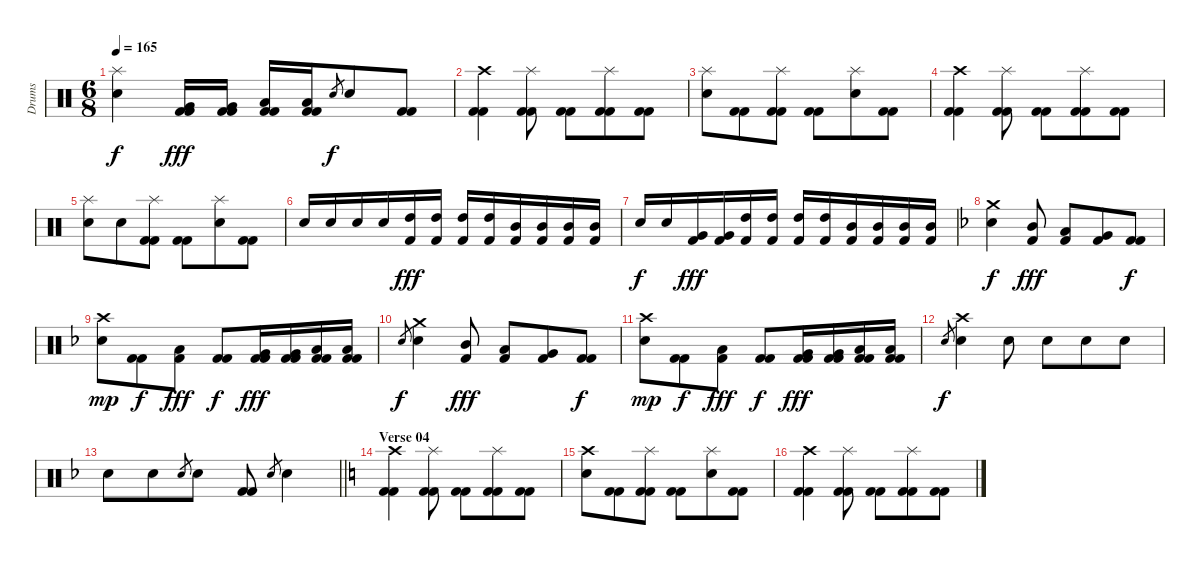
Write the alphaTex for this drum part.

\track ("Drums" "Drums") {instrument percussion}
\staff {score}
\articulation defaults
\ts (6 8)
\tempo 165
\clef neutral
\ks c
("Splash (hit)" "Electric Snare (hit)").4{dy f} ("Very Low Tom (hit)" "Kick (hit) 2" "Kick (hit) 2").16{dy fff} ("Very Low Tom (hit)" "Kick (hit) 2" "Kick (hit) 2").16 ("Low Floor Tom (hit)" "Kick (hit) 2" "Kick (hit) 2").16 ("Low Floor Tom (hit)" "Kick (hit) 2" "Kick (hit) 2").16 "Electric Snare (hit)".8{gr dy f} "Electric Snare (hit)".8 ("Kick (hit) 2" "Kick (hit) 2").8 |
("Crash high (hit)" "Kick (hit) 2" "Kick (hit) 2").4 ("Splash (hit)" "Kick (hit) 2" "Kick (hit) 2").8 ("Kick (hit) 2" "Kick (hit) 2").8 ("Splash (hit)" "Kick (hit) 2" "Kick (hit) 2").8 ("Kick (hit) 2" "Kick (hit) 2").8 |
("Splash (hit)" "Electric Snare (hit)").8 ("Kick (hit) 2" "Kick (hit) 2").8 ("Splash (hit)" "Kick (hit) 2" "Kick (hit) 2").8 ("Kick (hit) 2" "Kick (hit) 2").8 ("Splash (hit)" "Electric Snare (hit)").8 ("Kick (hit) 2" "Kick (hit) 2").8 |
("Crash high (hit)" "Kick (hit) 2" "Kick (hit) 2").4 ("Splash (hit)" "Kick (hit) 2" "Kick (hit) 2").8 ("Kick (hit) 2" "Kick (hit) 2").8 ("Splash (hit)" "Kick (hit) 2" "Kick (hit) 2").8 ("Kick (hit) 2" "Kick (hit) 2").8 |
("Splash (hit)" "Electric Snare (hit)").8 "Electric Snare (hit)".8 ("Splash (hit)" "Kick (hit) 2" "Kick (hit) 2").8 ("Kick (hit) 2" "Kick (hit) 2").8 ("Splash (hit)" "Electric Snare (hit)").8 ("Kick (hit) 2" "Kick (hit) 2").8 |
"Electric Snare (hit)".16 "Electric Snare (hit)".16 "Electric Snare (hit)".16 "Electric Snare (hit)".16 ("High Tom (hit)" "Kick (hit) 2").16{dy fff} ("High Tom (hit)" "Kick (hit) 2").16 ("High Tom (hit)" "Kick (hit) 2").16 ("High Tom (hit)" "Kick (hit) 2").16 ("Mid Tom (hit)" "Kick (hit) 2").16 ("Mid Tom (hit)" "Kick (hit) 2").16 ("Mid Tom (hit)" "Kick (hit) 2").16 ("Mid Tom (hit)" "Kick (hit) 2").16 |
"Electric Snare (hit)".16{dy f} "Electric Snare (hit)".16 ("Very Low Tom (hit)" "Kick (hit) 2").16{dy fff} ("Very Low Tom (hit)" "Kick (hit) 2").16 ("High Tom (hit)" "Kick (hit) 2").16 ("High Tom (hit)" "Kick (hit) 2").16 ("High Tom (hit)" "Kick (hit) 2").16 ("High Tom (hit)" "Kick (hit) 2").16 ("Mid Tom (hit)" "Kick (hit) 2").16 ("Mid Tom (hit)" "Kick (hit) 2").16 ("Mid Tom (hit)" "Kick (hit) 2").16 ("Mid Tom (hit)" "Kick (hit) 2").16 |
\ks dminor
("Crash medium (hit)" "Electric Snare (hit)").4{dy f} ("Mid Tom (hit)" "Kick (hit) 2").8{dy fff} ("Low Tom (hit)" "Kick (hit) 2").8 ("Very Low Tom (hit)" "Kick (hit) 2").8 ("Kick (hit) 2" "Kick (hit) 2").8{dy f} |
("Crash high (hit)" "Electric Snare (hit)").8{dy mp} ("Kick (hit) 2" "Kick (hit) 2").8{dy f} ("Low Tom (hit)" "Kick (hit) 2").8{dy fff} ("Kick (hit) 2" "Kick (hit) 2").8{dy f} ("Very Low Tom (hit)" "Kick (hit) 2" "Kick (hit) 2").16{dy fff} ("Very Low Tom (hit)" "Kick (hit) 2" "Kick (hit) 2").16 ("Low Floor Tom (hit)" "Kick (hit) 2" "Kick (hit) 2").16 ("Low Floor Tom (hit)" "Kick (hit) 2" "Kick (hit) 2").16 |
"Electric Snare (hit)".8{gr dy f} ("Crash medium (hit)" "Electric Snare (hit)").4 ("Mid Tom (hit)" "Kick (hit) 2").8{dy fff} ("Low Tom (hit)" "Kick (hit) 2").8 ("Very Low Tom (hit)" "Kick (hit) 2").8 ("Kick (hit) 2" "Kick (hit) 2").8{dy f} |
("Crash high (hit)" "Electric Snare (hit)").8{dy mp} ("Kick (hit) 2" "Kick (hit) 2").8{dy f} ("Low Tom (hit)" "Kick (hit) 2").8{dy fff} ("Kick (hit) 2" "Kick (hit) 2").8{dy f} ("Very Low Tom (hit)" "Kick (hit) 2" "Kick (hit) 2").16{dy fff} ("Very Low Tom (hit)" "Kick (hit) 2" "Kick (hit) 2").16 ("Low Floor Tom (hit)" "Kick (hit) 2" "Kick (hit) 2").16 ("Low Floor Tom (hit)" "Kick (hit) 2" "Kick (hit) 2").16 |
"Electric Snare (hit)".8{gr dy f} ("Crash high (hit)" "Electric Snare (hit)").4 "Electric Snare (hit)".8 "Electric Snare (hit)".8 "Electric Snare (hit)".8 "Electric Snare (hit)".8 |
\barLineRight lightlight "Electric Snare (hit)".8 "Electric Snare (hit)".8 "Electric Snare (hit)".8{gr} "Electric Snare (hit)".8
("Kick (hit) 2" "Kick (hit) 2").8 "Electric Snare (hit)".8{gr} "Electric Snare (hit)".4 |
\section ("" "Verse 04")
\ks c
("Crash high (hit)" "Kick (hit) 2" "Kick (hit) 2").4 ("Splash (hit)" "Kick (hit) 2" "Kick (hit) 2").8 ("Kick (hit) 2" "Kick (hit) 2").8 ("Splash (hit)" "Kick (hit) 2" "Kick (hit) 2").8 ("Kick (hit) 2" "Kick (hit) 2").8 |
("Crash high (hit)" "Electric Snare (hit)").8 ("Kick (hit) 2" "Kick (hit) 2").8 ("Splash (hit)" "Kick (hit) 2" "Kick (hit) 2").8 ("Kick (hit) 2" "Kick (hit) 2").8 ("Splash (hit)" "Electric Snare (hit)").8 ("Kick (hit) 2" "Kick (hit) 2").8 |
("Crash high (hit)" "Kick (hit) 2" "Kick (hit) 2").4 ("Splash (hit)" "Kick (hit) 2" "Kick (hit) 2").8 ("Kick (hit) 2" "Kick (hit) 2").8 ("Splash (hit)" "Kick (hit) 2" "Kick (hit) 2").8 ("Kick (hit) 2" "Kick (hit) 2").8
